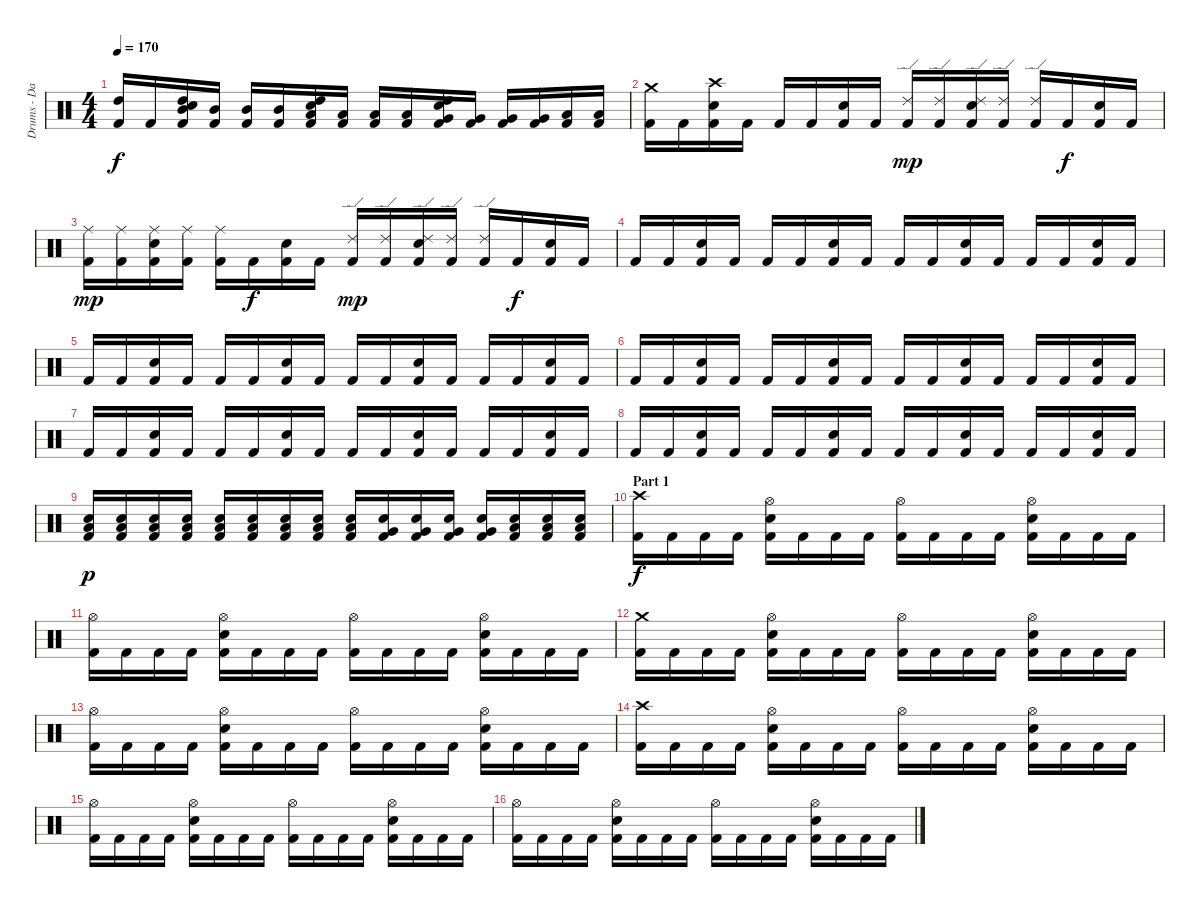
\track ("Drums - Daniel Zimmermann" "Drums - Da") {instrument percussion}
\staff {score}
\articulation defaults
\ts (4 4)
\tempo 170
\clef neutral
\ks c
("Kick (hit) 2" "High Tom (hit)").16{dy f} "Kick (hit) 2".16 ("Kick (hit) 2" "Electric Snare (hit)" "High Tom (hit)" "Mid Tom (hit)").16 ("Kick (hit) 2" "Mid Tom (hit)").16 ("Kick (hit) 2" "Mid Tom (hit)").16 ("Kick (hit) 2" "Mid Tom (hit)").16 ("Kick (hit) 2" "Electric Snare (hit)" "High Tom (hit)" "Low Tom (hit)").16 ("Kick (hit) 2" "Low Tom (hit)").16 ("Kick (hit) 2" "Low Tom (hit)").16 ("Kick (hit) 2" "Low Tom (hit)").16 ("Kick (hit) 2" "Electric Snare (hit)" "High Tom (hit)" "Very Low Tom (hit)").16 ("Kick (hit) 2" "Very Low Tom (hit)").16 ("Kick (hit) 2" "Very Low Tom (hit)").16 ("Kick (hit) 2" "Very Low Tom (hit)").16 ("Kick (hit) 2" "Low Floor Tom (hit)").16 ("Kick (hit) 2" "Low Floor Tom (hit)").16 |
("Kick (hit) 2" "Crash medium (hit)").16 "Kick (hit) 2".16 ("Kick (hit) 2" "Electric Snare (hit)" "Crash high (hit)").16 "Kick (hit) 2".16 "Kick (hit) 2".16 "Kick (hit) 2".16 ("Kick (hit) 2" "Electric Snare (hit)").16 "Kick (hit) 2".16 ("Kick (hit) 2" "Ride (edge) 2").16{dy mp} ("Kick (hit) 2" "Ride (edge) 2").16 ("Kick (hit) 2" "Electric Snare (hit)" "Ride (edge) 2").16 ("Kick (hit) 2" "Ride (edge) 2").16 ("Kick (hit) 2" "Ride (edge) 2").16 "Kick (hit) 2".16{dy f} ("Kick (hit) 2" "Electric Snare (hit)").16 "Kick (hit) 2".16 |
("Kick (hit) 2" "Ride (middle)").16{dy mp} ("Kick (hit) 2" "Ride (middle)").16 ("Kick (hit) 2" "Electric Snare (hit)" "Ride (middle)").16 ("Kick (hit) 2" "Ride (middle)").16 ("Kick (hit) 2" "Ride (middle)").16 "Kick (hit) 2".16{dy f} ("Kick (hit) 2" "Electric Snare (hit)").16 "Kick (hit) 2".16 ("Kick (hit) 2" "Ride (edge) 2").16{dy mp} ("Kick (hit) 2" "Ride (edge) 2").16 ("Kick (hit) 2" "Electric Snare (hit)" "Ride (edge) 2").16 ("Kick (hit) 2" "Ride (edge) 2").16 ("Kick (hit) 2" "Ride (edge) 2").16 "Kick (hit) 2".16{dy f} ("Kick (hit) 2" "Electric Snare (hit)").16 "Kick (hit) 2".16 |
"Kick (hit) 2".16 "Kick (hit) 2".16 ("Kick (hit) 2" "Electric Snare (hit)").16 "Kick (hit) 2".16 "Kick (hit) 2".16 "Kick (hit) 2".16 ("Kick (hit) 2" "Electric Snare (hit)").16 "Kick (hit) 2".16 "Kick (hit) 2".16 "Kick (hit) 2".16 ("Kick (hit) 2" "Electric Snare (hit)").16 "Kick (hit) 2".16 "Kick (hit) 2".16 "Kick (hit) 2".16 ("Kick (hit) 2" "Electric Snare (hit)").16 "Kick (hit) 2".16 |
"Kick (hit) 2".16 "Kick (hit) 2".16 ("Kick (hit) 2" "Electric Snare (hit)").16 "Kick (hit) 2".16 "Kick (hit) 2".16 "Kick (hit) 2".16 ("Kick (hit) 2" "Electric Snare (hit)").16 "Kick (hit) 2".16 "Kick (hit) 2".16 "Kick (hit) 2".16 ("Kick (hit) 2" "Electric Snare (hit)").16 "Kick (hit) 2".16 "Kick (hit) 2".16 "Kick (hit) 2".16 ("Kick (hit) 2" "Electric Snare (hit)").16 "Kick (hit) 2".16 |
"Kick (hit) 2".16 "Kick (hit) 2".16 ("Kick (hit) 2" "Electric Snare (hit)").16 "Kick (hit) 2".16 "Kick (hit) 2".16 "Kick (hit) 2".16 ("Kick (hit) 2" "Electric Snare (hit)").16 "Kick (hit) 2".16 "Kick (hit) 2".16 "Kick (hit) 2".16 ("Kick (hit) 2" "Electric Snare (hit)").16 "Kick (hit) 2".16 "Kick (hit) 2".16 "Kick (hit) 2".16 ("Kick (hit) 2" "Electric Snare (hit)").16 "Kick (hit) 2".16 |
"Kick (hit) 2".16 "Kick (hit) 2".16 ("Kick (hit) 2" "Electric Snare (hit)").16 "Kick (hit) 2".16 "Kick (hit) 2".16 "Kick (hit) 2".16 ("Kick (hit) 2" "Electric Snare (hit)").16 "Kick (hit) 2".16 "Kick (hit) 2".16 "Kick (hit) 2".16 ("Kick (hit) 2" "Electric Snare (hit)").16 "Kick (hit) 2".16 "Kick (hit) 2".16 "Kick (hit) 2".16 ("Kick (hit) 2" "Electric Snare (hit)").16 "Kick (hit) 2".16 |
"Kick (hit) 2".16 "Kick (hit) 2".16 ("Kick (hit) 2" "Electric Snare (hit)").16 "Kick (hit) 2".16 "Kick (hit) 2".16 "Kick (hit) 2".16 ("Kick (hit) 2" "Electric Snare (hit)").16 "Kick (hit) 2".16 "Kick (hit) 2".16 "Kick (hit) 2".16 ("Kick (hit) 2" "Electric Snare (hit)").16 "Kick (hit) 2".16 "Kick (hit) 2".16 "Kick (hit) 2".16 ("Kick (hit) 2" "Electric Snare (hit)").16 "Kick (hit) 2".16 |
("Kick (hit) 2" "Low Tom (hit)" "Electric Snare (hit)").16{dy p} ("Kick (hit) 2" "Low Tom (hit)" "Electric Snare (hit)").16 ("Kick (hit) 2" "Low Tom (hit)" "Electric Snare (hit)").16 ("Kick (hit) 2" "Low Tom (hit)" "Electric Snare (hit)").16 ("Kick (hit) 2" "Low Tom (hit)" "Electric Snare (hit)").16 ("Kick (hit) 2" "Low Tom (hit)" "Electric Snare (hit)").16 ("Kick (hit) 2" "Low Tom (hit)" "Electric Snare (hit)").16 ("Kick (hit) 2" "Low Tom (hit)" "Electric Snare (hit)").16 ("Kick (hit) 2" "Low Tom (hit)" "Electric Snare (hit)").16 ("Kick (hit) 2" "Very Low Tom (hit)" "Electric Snare (hit)").16 ("Kick (hit) 2" "Very Low Tom (hit)" "Electric Snare (hit)").16 ("Kick (hit) 2" "Very Low Tom (hit)" "Electric Snare (hit)").16 ("Kick (hit) 2" "Very Low Tom (hit)" "Electric Snare (hit)").16 ("Kick (hit) 2" "Low Floor Tom (hit)" "Electric Snare (hit)").16 ("Kick (hit) 2" "Low Floor Tom (hit)" "Electric Snare (hit)").16 ("Kick (hit) 2" "Low Floor Tom (hit)" "Electric Snare (hit)").16 |
\section ("" "Part 1")
("Kick (hit) 2" "Crash high (hit)").16{dy f} "Kick (hit) 2".16 "Kick (hit) 2".16 "Kick (hit) 2".16 ("Kick (hit) 2" "Electric Snare (hit)" "Hi-Hat (open)").16 "Kick (hit) 2".16 "Kick (hit) 2".16 "Kick (hit) 2".16 ("Kick (hit) 2" "Hi-Hat (open)").16 "Kick (hit) 2".16 "Kick (hit) 2".16 "Kick (hit) 2".16 ("Kick (hit) 2" "Electric Snare (hit)" "Hi-Hat (open)").16 "Kick (hit) 2".16 "Kick (hit) 2".16 "Kick (hit) 2".16 |
("Kick (hit) 2" "Hi-Hat (open)").16 "Kick (hit) 2".16 "Kick (hit) 2".16 "Kick (hit) 2".16 ("Kick (hit) 2" "Electric Snare (hit)" "Hi-Hat (open)").16 "Kick (hit) 2".16 "Kick (hit) 2".16 "Kick (hit) 2".16 ("Kick (hit) 2" "Hi-Hat (open)").16 "Kick (hit) 2".16 "Kick (hit) 2".16 "Kick (hit) 2".16 ("Kick (hit) 2" "Electric Snare (hit)" "Hi-Hat (open)").16 "Kick (hit) 2".16 "Kick (hit) 2".16 "Kick (hit) 2".16 |
("Kick (hit) 2" "Crash medium (hit)").16 "Kick (hit) 2".16 "Kick (hit) 2".16 "Kick (hit) 2".16 ("Kick (hit) 2" "Electric Snare (hit)" "Hi-Hat (open)").16 "Kick (hit) 2".16 "Kick (hit) 2".16 "Kick (hit) 2".16 ("Kick (hit) 2" "Hi-Hat (open)").16 "Kick (hit) 2".16 "Kick (hit) 2".16 "Kick (hit) 2".16 ("Kick (hit) 2" "Electric Snare (hit)" "Hi-Hat (open)").16 "Kick (hit) 2".16 "Kick (hit) 2".16 "Kick (hit) 2".16 |
("Kick (hit) 2" "Hi-Hat (open)").16 "Kick (hit) 2".16 "Kick (hit) 2".16 "Kick (hit) 2".16 ("Kick (hit) 2" "Electric Snare (hit)" "Hi-Hat (open)").16 "Kick (hit) 2".16 "Kick (hit) 2".16 "Kick (hit) 2".16 ("Kick (hit) 2" "Hi-Hat (open)").16 "Kick (hit) 2".16 "Kick (hit) 2".16 "Kick (hit) 2".16 ("Kick (hit) 2" "Electric Snare (hit)" "Hi-Hat (open)").16 "Kick (hit) 2".16 "Kick (hit) 2".16 "Kick (hit) 2".16 |
("Kick (hit) 2" "Crash high (hit)").16 "Kick (hit) 2".16 "Kick (hit) 2".16 "Kick (hit) 2".16 ("Kick (hit) 2" "Electric Snare (hit)" "Hi-Hat (open)").16 "Kick (hit) 2".16 "Kick (hit) 2".16 "Kick (hit) 2".16 ("Kick (hit) 2" "Hi-Hat (open)").16 "Kick (hit) 2".16 "Kick (hit) 2".16 "Kick (hit) 2".16 ("Kick (hit) 2" "Electric Snare (hit)" "Hi-Hat (open)").16 "Kick (hit) 2".16 "Kick (hit) 2".16 "Kick (hit) 2".16 |
("Kick (hit) 2" "Hi-Hat (open)").16 "Kick (hit) 2".16 "Kick (hit) 2".16 "Kick (hit) 2".16 ("Kick (hit) 2" "Electric Snare (hit)" "Hi-Hat (open)").16 "Kick (hit) 2".16 "Kick (hit) 2".16 "Kick (hit) 2".16 ("Kick (hit) 2" "Hi-Hat (open)").16 "Kick (hit) 2".16 "Kick (hit) 2".16 "Kick (hit) 2".16 ("Kick (hit) 2" "Electric Snare (hit)" "Hi-Hat (open)").16 "Kick (hit) 2".16 "Kick (hit) 2".16 "Kick (hit) 2".16 |
("Kick (hit) 2" "Hi-Hat (open)").16 "Kick (hit) 2".16 "Kick (hit) 2".16 "Kick (hit) 2".16 ("Kick (hit) 2" "Electric Snare (hit)" "Hi-Hat (open)").16 "Kick (hit) 2".16 "Kick (hit) 2".16 "Kick (hit) 2".16 ("Kick (hit) 2" "Hi-Hat (open)").16 "Kick (hit) 2".16 "Kick (hit) 2".16 "Kick (hit) 2".16 ("Kick (hit) 2" "Electric Snare (hit)" "Hi-Hat (open)").16 "Kick (hit) 2".16 "Kick (hit) 2".16 "Kick (hit) 2".16
